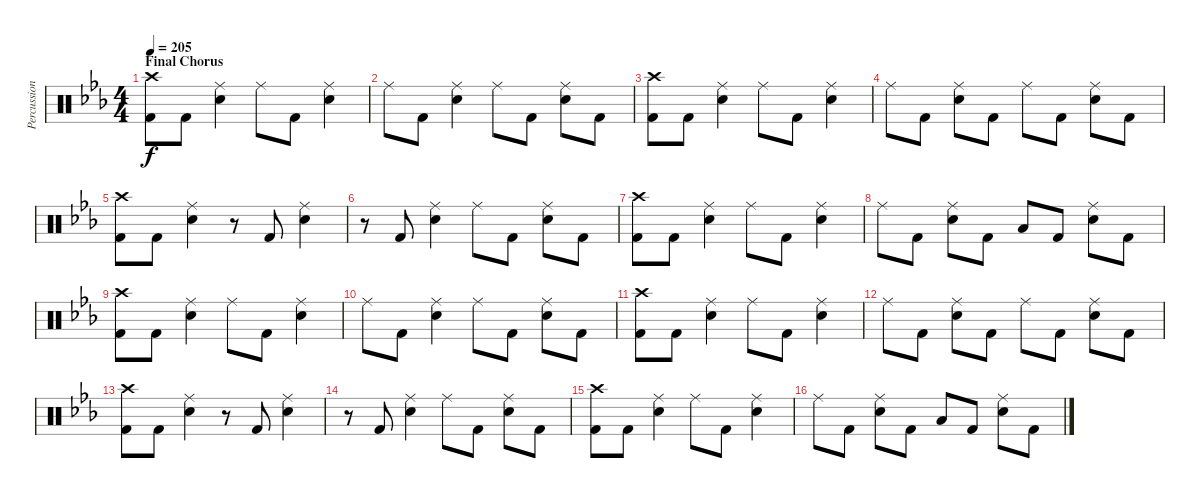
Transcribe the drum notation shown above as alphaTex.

\track ("Percussion" "Percussion") {instrument percussion}
\staff {score}
\articulation defaults
\ts (4 4)
\section ("" "Final Chorus")
\tempo 205
\clef neutral
\ks eb
("Crash high (hit)" "Kick (hit) 2").8{dy f} "Kick (hit) 2".8 ("Ride (middle)" "Snare (hit) 2").4 "Ride (middle)".8 "Kick (hit) 2".8 ("Ride (middle)" "Snare (hit) 2").4 |
"Ride (middle)".8 "Kick (hit) 2".8 ("Ride (middle)" "Snare (hit) 2").4 "Ride (middle)".8 "Kick (hit) 2".8 ("Ride (middle)" "Snare (hit) 2").8 "Kick (hit) 2".8 |
("Crash high (hit)" "Kick (hit) 2").8 "Kick (hit) 2".8 ("Ride (middle)" "Snare (hit) 2").4 "Ride (middle)".8 "Kick (hit) 2".8 ("Ride (middle)" "Snare (hit) 2").4 |
"Ride (middle)".8 "Kick (hit) 2".8 ("Ride (middle)" "Snare (hit) 2").8 "Kick (hit) 2".8 "Ride (middle)".8 "Kick (hit) 2".8 ("Ride (middle)" "Snare (hit) 2").8 "Kick (hit) 2".8 |
("Crash high (hit)" "Kick (hit) 2").8 "Kick (hit) 2".8 ("Ride (middle)" "Snare (hit) 2").4 r.8 "Kick (hit) 2".8 ("Ride (middle)" "Snare (hit) 2").4 |
r.8 "Kick (hit) 2".8 ("Ride (middle)" "Snare (hit) 2").4 "Ride (middle)".8 "Kick (hit) 2".8 ("Ride (middle)" "Snare (hit) 2").8 "Kick (hit) 2".8 |
("Crash high (hit)" "Kick (hit) 2").8 "Kick (hit) 2".8 ("Ride (middle)" "Snare (hit) 2").4 "Ride (middle)".8 "Kick (hit) 2".8 ("Ride (middle)" "Snare (hit) 2").4 |
"Ride (middle)".8 "Kick (hit) 2".8 ("Ride (middle)" "Snare (hit) 2").8 "Kick (hit) 2".8 "Low Tom (hit)".8 "Kick (hit) 2".8 ("Ride (middle)" "Snare (hit) 2").8 "Kick (hit) 2".8 |
("Crash high (hit)" "Kick (hit) 2").8 "Kick (hit) 2".8 ("Ride (middle)" "Snare (hit) 2").4 "Ride (middle)".8 "Kick (hit) 2".8 ("Ride (middle)" "Snare (hit) 2").4 |
"Ride (middle)".8 "Kick (hit) 2".8 ("Ride (middle)" "Snare (hit) 2").4 "Ride (middle)".8 "Kick (hit) 2".8 ("Ride (middle)" "Snare (hit) 2").8 "Kick (hit) 2".8 |
("Crash high (hit)" "Kick (hit) 2").8 "Kick (hit) 2".8 ("Ride (middle)" "Snare (hit) 2").4 "Ride (middle)".8 "Kick (hit) 2".8 ("Ride (middle)" "Snare (hit) 2").4 |
"Ride (middle)".8 "Kick (hit) 2".8 ("Ride (middle)" "Snare (hit) 2").8 "Kick (hit) 2".8 "Ride (middle)".8 "Kick (hit) 2".8 ("Ride (middle)" "Snare (hit) 2").8 "Kick (hit) 2".8 |
("Crash high (hit)" "Kick (hit) 2").8 "Kick (hit) 2".8 ("Ride (middle)" "Snare (hit) 2").4 r.8 "Kick (hit) 2".8 ("Ride (middle)" "Snare (hit) 2").4 |
r.8 "Kick (hit) 2".8 ("Ride (middle)" "Snare (hit) 2").4 "Ride (middle)".8 "Kick (hit) 2".8 ("Ride (middle)" "Snare (hit) 2").8 "Kick (hit) 2".8 |
("Crash high (hit)" "Kick (hit) 2").8 "Kick (hit) 2".8 ("Ride (middle)" "Snare (hit) 2").4 "Ride (middle)".8 "Kick (hit) 2".8 ("Ride (middle)" "Snare (hit) 2").4 |
"Ride (middle)".8 "Kick (hit) 2".8 ("Ride (middle)" "Snare (hit) 2").8 "Kick (hit) 2".8 "Low Tom (hit)".8 "Kick (hit) 2".8 ("Ride (middle)" "Snare (hit) 2").8 "Kick (hit) 2".8
